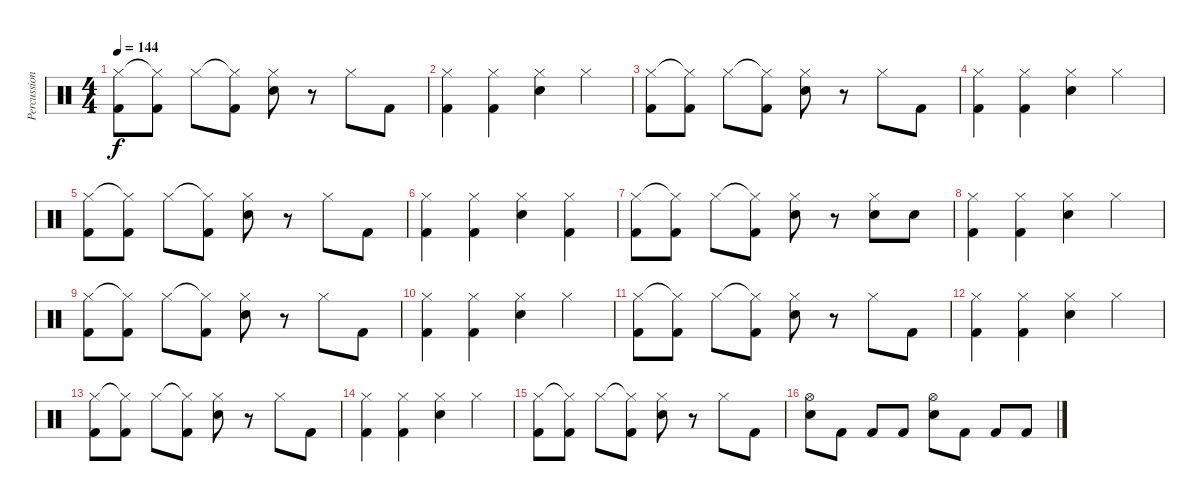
\track ("Percussion" "Percussion") {instrument percussion}
\staff {score}
\articulation defaults
\ts (4 4)
\tempo 144
\clef neutral
\ks c
("Hi-Hat (closed)" "Kick (hit) 2").8{dy f} ("Hi-Hat (closed)"{t} "Kick (hit) 2").8 "Hi-Hat (closed)".8 ("Hi-Hat (closed)"{t} "Kick (hit) 2").8 ("Hi-Hat (closed)" "Snare (hit) 2").8 r.8 "Hi-Hat (closed)".8 "Kick (hit) 2".8 |
("Hi-Hat (closed)" "Kick (hit) 2").4 ("Hi-Hat (closed)" "Kick (hit) 2").4 ("Hi-Hat (closed)" "Snare (hit) 2").4 "Hi-Hat (closed)".4 |
("Hi-Hat (closed)" "Kick (hit) 2").8 ("Hi-Hat (closed)"{t} "Kick (hit) 2").8 "Hi-Hat (closed)".8 ("Hi-Hat (closed)"{t} "Kick (hit) 2").8 ("Hi-Hat (closed)" "Snare (hit) 2").8 r.8 "Hi-Hat (closed)".8 "Kick (hit) 2".8 |
("Hi-Hat (closed)" "Kick (hit) 2").4 ("Hi-Hat (closed)" "Kick (hit) 2").4 ("Hi-Hat (closed)" "Snare (hit) 2").4 "Hi-Hat (closed)".4 |
("Hi-Hat (closed)" "Kick (hit) 2").8 ("Hi-Hat (closed)"{t} "Kick (hit) 2").8 "Hi-Hat (closed)".8 ("Hi-Hat (closed)"{t} "Kick (hit) 2").8 ("Hi-Hat (closed)" "Snare (hit) 2").8 r.8 "Hi-Hat (closed)".8 "Kick (hit) 2".8 |
("Hi-Hat (closed)" "Kick (hit) 2").4 ("Hi-Hat (closed)" "Kick (hit) 2").4 ("Hi-Hat (closed)" "Snare (hit) 2").4 ("Hi-Hat (closed)" "Kick (hit) 2").4 |
("Hi-Hat (closed)" "Kick (hit) 2").8 ("Hi-Hat (closed)"{t} "Kick (hit) 2").8 "Hi-Hat (closed)".8 ("Hi-Hat (closed)"{t} "Kick (hit) 2").8 ("Hi-Hat (closed)" "Snare (hit) 2").8 r.8 ("Hi-Hat (closed)" "Snare (hit) 2").8 "Snare (hit) 2".8 |
("Hi-Hat (closed)" "Kick (hit) 2").4 ("Hi-Hat (closed)" "Kick (hit) 2").4 ("Hi-Hat (closed)" "Snare (hit) 2").4 "Hi-Hat (closed)".4 |
("Hi-Hat (closed)" "Kick (hit) 2").8 ("Hi-Hat (closed)"{t} "Kick (hit) 2").8 "Hi-Hat (closed)".8 ("Hi-Hat (closed)"{t} "Kick (hit) 2").8 ("Hi-Hat (closed)" "Snare (hit) 2").8 r.8 "Hi-Hat (closed)".8 "Kick (hit) 2".8 |
("Hi-Hat (closed)" "Kick (hit) 2").4 ("Hi-Hat (closed)" "Kick (hit) 2").4 ("Hi-Hat (closed)" "Snare (hit) 2").4 "Hi-Hat (closed)".4 |
("Hi-Hat (closed)" "Kick (hit) 2").8 ("Hi-Hat (closed)"{t} "Kick (hit) 2").8 "Hi-Hat (closed)".8 ("Hi-Hat (closed)"{t} "Kick (hit) 2").8 ("Hi-Hat (closed)" "Snare (hit) 2").8 r.8 "Hi-Hat (closed)".8 "Kick (hit) 2".8 |
("Hi-Hat (closed)" "Kick (hit) 2").4 ("Hi-Hat (closed)" "Kick (hit) 2").4 ("Hi-Hat (closed)" "Snare (hit) 2").4 "Hi-Hat (closed)".4 |
("Hi-Hat (closed)" "Kick (hit) 2").8 ("Hi-Hat (closed)"{t} "Kick (hit) 2").8 "Hi-Hat (closed)".8 ("Hi-Hat (closed)"{t} "Kick (hit) 2").8 ("Hi-Hat (closed)" "Snare (hit) 2").8 r.8 "Hi-Hat (closed)".8 "Kick (hit) 2".8 |
("Hi-Hat (closed)" "Kick (hit) 2").4 ("Hi-Hat (closed)" "Kick (hit) 2").4 ("Hi-Hat (closed)" "Snare (hit) 2").4 "Hi-Hat (closed)".4 |
("Hi-Hat (closed)" "Kick (hit) 2").8 ("Hi-Hat (closed)"{t} "Kick (hit) 2").8 "Hi-Hat (closed)".8 ("Hi-Hat (closed)"{t} "Kick (hit) 2").8 ("Hi-Hat (closed)" "Snare (hit) 2").8 r.8 "Hi-Hat (closed)".8 "Kick (hit) 2".8 |
("Hi-Hat (open)" "Snare (hit) 2").8 "Kick (hit) 2".8 "Kick (hit) 2".8 "Kick (hit) 2".8 ("Hi-Hat (open)" "Snare (hit) 2").8 "Kick (hit) 2".8 "Kick (hit) 2".8 "Kick (hit) 2".8
